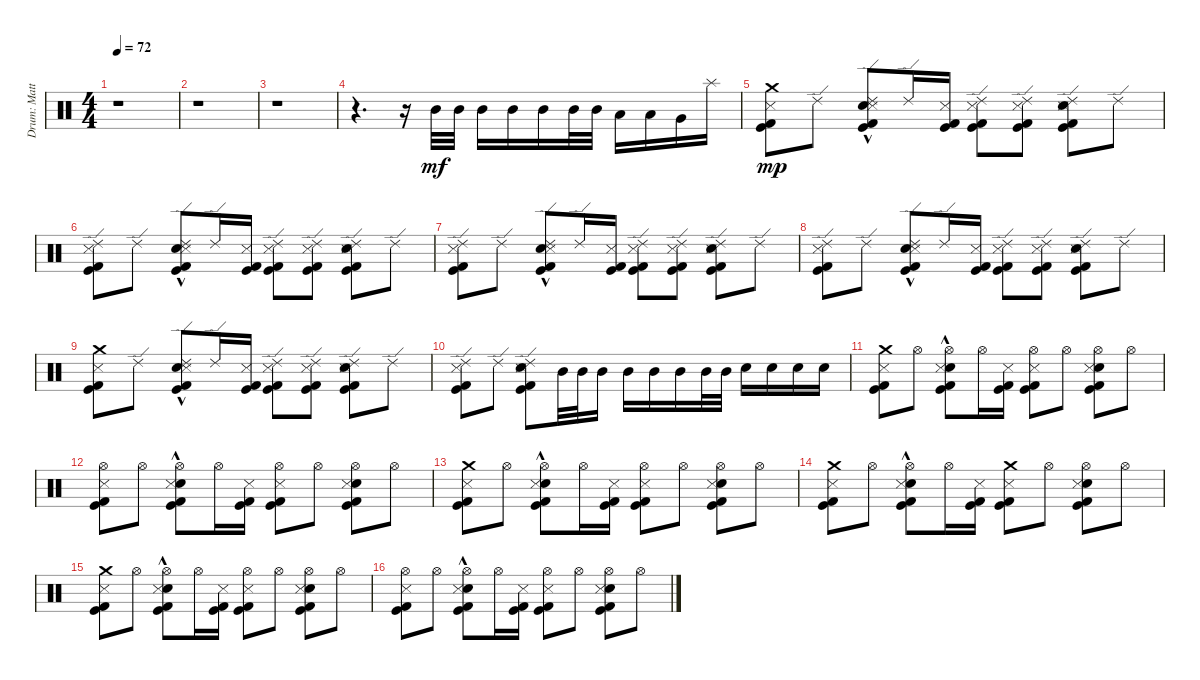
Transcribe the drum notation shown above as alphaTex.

\track ("Drum: Matt" "Drum: Matt") {instrument percussion}
\staff {score}
\articulation defaults
\ts (4 4)
\tempo 72
\clef neutral
\ks c
r.1{dy mp} |
r.1 |
r.1 |
r.4{d} r.16 "Mid Tom (hit)".32{dy mf} "Mid Tom (hit)".32 "Mid Tom (hit)".16 "Mid Tom (hit)".16 "Mid Tom (hit)".16 "Mid Tom (hit)".32 "Mid Tom (hit)".32 "Low Tom (hit)".16 "Low Tom (hit)".16 "Very Low Tom (hit)".16 "Splash (hit)".16 |
("Crash medium (hit)" "Metronome (hit)" "Kick (hit)" "Kick (hit) 2").8{dy mp} "Ride (edge) 2".8 ("Snare (hit) 2" "Ride (edge) 2" "Metronome (hit)"{hac} "Kick (hit)"{hac} "Kick (hit) 2"{hac}).8 "Ride (edge) 2".16 ("Metronome (hit)" "Kick (hit)" "Kick (hit) 2").16 ("Ride (edge) 2" "Metronome (hit)" "Kick (hit)" "Kick (hit) 2").8 ("Ride (edge) 2" "Metronome (hit)" "Kick (hit)" "Kick (hit) 2").8 ("Snare (hit) 2" "Ride (edge) 2" "Metronome (hit)" "Kick (hit)" "Kick (hit) 2").8 "Ride (edge) 2".8 |
("Ride (edge) 2" "Metronome (hit)" "Kick (hit)" "Kick (hit) 2").8 "Ride (edge) 2".8 ("Snare (hit) 2" "Ride (edge) 2" "Metronome (hit)"{hac} "Kick (hit)"{hac} "Kick (hit) 2"{hac}).8 "Ride (edge) 2".16 ("Metronome (hit)" "Kick (hit)" "Kick (hit) 2").16 ("Ride (edge) 2" "Metronome (hit)" "Kick (hit)" "Kick (hit) 2").8 ("Ride (edge) 2" "Metronome (hit)" "Kick (hit)" "Kick (hit) 2").8 ("Snare (hit) 2" "Ride (edge) 2" "Metronome (hit)" "Kick (hit)" "Kick (hit) 2").8 "Ride (edge) 2".8 |
("Ride (edge) 2" "Metronome (hit)" "Kick (hit)" "Kick (hit) 2").8 "Ride (edge) 2".8 ("Snare (hit) 2" "Ride (edge) 2" "Metronome (hit)"{hac} "Kick (hit)"{hac} "Kick (hit) 2"{hac}).8 "Ride (edge) 2".16 ("Metronome (hit)" "Kick (hit)" "Kick (hit) 2").16 ("Ride (edge) 2" "Metronome (hit)" "Kick (hit)" "Kick (hit) 2").8 ("Ride (edge) 2" "Metronome (hit)" "Kick (hit)" "Kick (hit) 2").8 ("Snare (hit) 2" "Ride (edge) 2" "Metronome (hit)" "Kick (hit)" "Kick (hit) 2").8 "Ride (edge) 2".8 |
("Ride (edge) 2" "Metronome (hit)" "Kick (hit)" "Kick (hit) 2").8 "Ride (edge) 2".8 ("Snare (hit) 2" "Ride (edge) 2" "Metronome (hit)"{hac} "Kick (hit)"{hac} "Kick (hit) 2"{hac}).8 "Ride (edge) 2".16 ("Metronome (hit)" "Kick (hit)" "Kick (hit) 2").16 ("Ride (edge) 2" "Metronome (hit)" "Kick (hit)" "Kick (hit) 2").8 ("Ride (edge) 2" "Metronome (hit)" "Kick (hit)" "Kick (hit) 2").8 ("Snare (hit) 2" "Ride (edge) 2" "Metronome (hit)" "Kick (hit)" "Kick (hit) 2").8 "Ride (edge) 2".8 |
("Crash medium (hit)" "Metronome (hit)" "Kick (hit)" "Kick (hit) 2").8 "Ride (edge) 2".8 ("Snare (hit) 2" "Ride (edge) 2" "Metronome (hit)"{hac} "Kick (hit)"{hac} "Kick (hit) 2"{hac}).8 "Ride (edge) 2".16 ("Metronome (hit)" "Kick (hit)" "Kick (hit) 2").16 ("Ride (edge) 2" "Metronome (hit)" "Kick (hit)" "Kick (hit) 2").8 ("Ride (edge) 2" "Metronome (hit)" "Kick (hit)" "Kick (hit) 2").8 ("Snare (hit) 2" "Ride (edge) 2" "Metronome (hit)" "Kick (hit)" "Kick (hit) 2").8 "Ride (edge) 2".8 |
("Metronome (hit)" "Kick (hit)" "Kick (hit) 2" "Ride (edge) 2").8 "Ride (edge) 2".8 ("Metronome (hit)" "Kick (hit)" "Kick (hit) 2" "Snare (hit) 2" "Ride (edge) 2").8 "Mid Tom (hit)".32 "Mid Tom (hit)".32 "Mid Tom (hit)".16 "Mid Tom (hit)".16 "Mid Tom (hit)".16 "Mid Tom (hit)".16 "Mid Tom (hit)".32 "Mid Tom (hit)".32 "Snare (hit) 2".16 "Snare (hit) 2".16 "Snare (hit) 2".16 "Snare (hit) 2".16 |
("Crash medium (hit)" "Metronome (hit)" "Kick (hit)" "Kick (hit) 2").8 "Hi-Hat (open)".8 ("Snare (hit) 2" "Hi-Hat (open)" "Metronome (hit)"{hac} "Kick (hit)"{hac} "Kick (hit) 2"{hac}).8 "Hi-Hat (open)".16 ("Metronome (hit)" "Kick (hit)" "Kick (hit) 2").16 ("Hi-Hat (open)" "Metronome (hit)" "Kick (hit)" "Kick (hit) 2").8 "Hi-Hat (open)".8 ("Snare (hit) 2" "Hi-Hat (open)" "Metronome (hit)" "Kick (hit)" "Kick (hit) 2").8 "Hi-Hat (open)".8 |
("Hi-Hat (open)" "Metronome (hit)" "Kick (hit)" "Kick (hit) 2").8 "Hi-Hat (open)".8 ("Snare (hit) 2" "Hi-Hat (open)" "Metronome (hit)"{hac} "Kick (hit)"{hac} "Kick (hit) 2"{hac}).8 "Hi-Hat (open)".16 ("Metronome (hit)" "Kick (hit)" "Kick (hit) 2").16 ("Hi-Hat (open)" "Metronome (hit)" "Kick (hit)" "Kick (hit) 2").8 "Hi-Hat (open)".8 ("Snare (hit) 2" "Hi-Hat (open)" "Metronome (hit)" "Kick (hit)" "Kick (hit) 2").8 "Hi-Hat (open)".8 |
("Crash medium (hit)" "Metronome (hit)" "Kick (hit)" "Kick (hit) 2").8 "Hi-Hat (open)".8 ("Snare (hit) 2" "Hi-Hat (open)" "Metronome (hit)"{hac} "Kick (hit)"{hac} "Kick (hit) 2"{hac}).8 "Hi-Hat (open)".16 ("Metronome (hit)" "Kick (hit)" "Kick (hit) 2").16 ("Hi-Hat (open)" "Metronome (hit)" "Kick (hit)" "Kick (hit) 2").8 "Hi-Hat (open)".8 ("Snare (hit) 2" "Hi-Hat (open)" "Metronome (hit)" "Kick (hit)" "Kick (hit) 2").8 "Hi-Hat (open)".8 |
("Crash medium (hit)" "Metronome (hit)" "Kick (hit)" "Kick (hit) 2").8 "Hi-Hat (open)".8 ("Snare (hit) 2" "Hi-Hat (open)" "Metronome (hit)"{hac} "Kick (hit)"{hac} "Kick (hit) 2"{hac}).8 "Hi-Hat (open)".16 ("Metronome (hit)" "Kick (hit)" "Kick (hit) 2").16 ("Crash medium (hit)" "Metronome (hit)" "Kick (hit)" "Kick (hit) 2").8 "Hi-Hat (open)".8 ("Snare (hit) 2" "Hi-Hat (open)" "Metronome (hit)" "Kick (hit)" "Kick (hit) 2").8 "Hi-Hat (open)".8 |
("Crash medium (hit)" "Metronome (hit)" "Kick (hit)" "Kick (hit) 2").8 "Hi-Hat (open)".8 ("Snare (hit) 2" "Hi-Hat (open)" "Metronome (hit)"{hac} "Kick (hit)"{hac} "Kick (hit) 2"{hac}).8 "Hi-Hat (open)".16 ("Metronome (hit)" "Kick (hit)" "Kick (hit) 2").16 ("Hi-Hat (open)" "Metronome (hit)" "Kick (hit)" "Kick (hit) 2").8 "Hi-Hat (open)".8 ("Snare (hit) 2" "Hi-Hat (open)" "Metronome (hit)" "Kick (hit)" "Kick (hit) 2").8 "Hi-Hat (open)".8 |
("Hi-Hat (open)" "Metronome (hit)" "Kick (hit)" "Kick (hit) 2").8 "Hi-Hat (open)".8 ("Snare (hit) 2" "Hi-Hat (open)" "Metronome (hit)"{hac} "Kick (hit)"{hac} "Kick (hit) 2"{hac}).8 "Hi-Hat (open)".16 ("Metronome (hit)" "Kick (hit)" "Kick (hit) 2").16 ("Hi-Hat (open)" "Metronome (hit)" "Kick (hit)" "Kick (hit) 2").8 "Hi-Hat (open)".8 ("Snare (hit) 2" "Hi-Hat (open)" "Metronome (hit)" "Kick (hit)" "Kick (hit) 2").8 "Hi-Hat (open)".8
